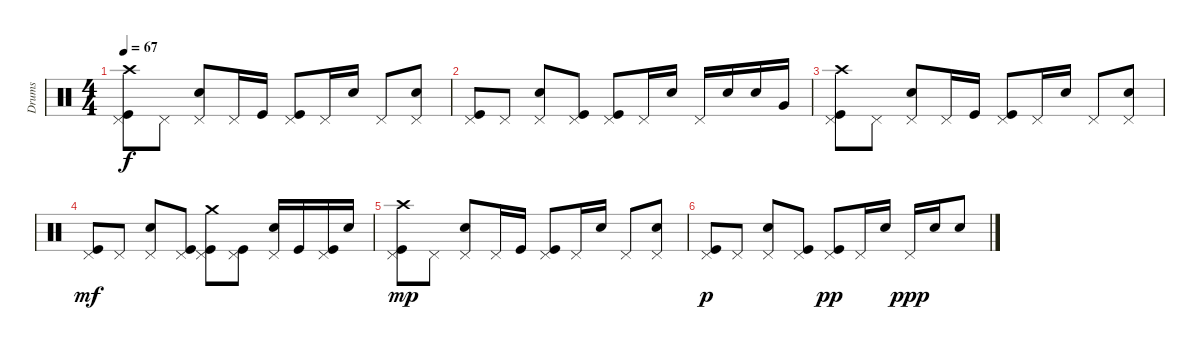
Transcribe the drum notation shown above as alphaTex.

\track ("Drums" "Drums") {instrument percussion}
\staff {score}
\articulation defaults
\ts (4 4)
\tempo 67
\clef neutral
\ks c
("Kick (hit)" "Pedal Hi-Hat (hit)" "Crash high (hit)").8{dy f} "Pedal Hi-Hat (hit)".8 ("Snare (hit) 2" "Pedal Hi-Hat (hit)").8 "Pedal Hi-Hat (hit)".16 "Kick (hit)".16 ("Kick (hit)" "Pedal Hi-Hat (hit)").8 "Pedal Hi-Hat (hit)".16 "Snare (hit) 2".16 "Pedal Hi-Hat (hit)".8 ("Snare (hit) 2" "Pedal Hi-Hat (hit)").8 |
("Kick (hit)" "Pedal Hi-Hat (hit)").8 "Pedal Hi-Hat (hit)".8 ("Snare (hit) 2" "Pedal Hi-Hat (hit)").8 ("Kick (hit)" "Pedal Hi-Hat (hit)").8 ("Kick (hit)" "Pedal Hi-Hat (hit)").8 "Pedal Hi-Hat (hit)".16 "Snare (hit) 2".16 "Pedal Hi-Hat (hit)".16 "Snare (hit) 2".16 "Snare (hit) 2".16 "Very Low Tom (hit)".16 |
("Kick (hit)" "Pedal Hi-Hat (hit)" "Crash high (hit)").8 "Pedal Hi-Hat (hit)".8 ("Snare (hit) 2" "Pedal Hi-Hat (hit)").8 "Pedal Hi-Hat (hit)".16 "Kick (hit)".16 ("Kick (hit)" "Pedal Hi-Hat (hit)").8 "Pedal Hi-Hat (hit)".16 "Snare (hit) 2".16 "Pedal Hi-Hat (hit)".8 ("Snare (hit) 2" "Pedal Hi-Hat (hit)").8 |
("Kick (hit)" "Pedal Hi-Hat (hit)").8{dy mf} "Pedal Hi-Hat (hit)".8 ("Snare (hit) 2" "Pedal Hi-Hat (hit)").8 ("Kick (hit)" "Pedal Hi-Hat (hit)").8 ("Kick (hit)" "Pedal Hi-Hat (hit)" "Crash medium (hit)").8 ("Kick (hit)" "Pedal Hi-Hat (hit)").8 ("Snare (hit) 2" "Pedal Hi-Hat (hit)").16 "Kick (hit)".16 ("Kick (hit)" "Pedal Hi-Hat (hit)").16 "Snare (hit) 2".16 |
("Kick (hit)" "Pedal Hi-Hat (hit)" "Crash high (hit)").8{dy mp} "Pedal Hi-Hat (hit)".8 ("Snare (hit) 2" "Pedal Hi-Hat (hit)").8 "Pedal Hi-Hat (hit)".16 "Kick (hit)".16 ("Kick (hit)" "Pedal Hi-Hat (hit)").8 "Pedal Hi-Hat (hit)".16 "Snare (hit) 2".16 "Pedal Hi-Hat (hit)".8 ("Snare (hit) 2" "Pedal Hi-Hat (hit)").8 |
("Kick (hit)" "Pedal Hi-Hat (hit)").8{dy p} "Pedal Hi-Hat (hit)".8 ("Snare (hit) 2" "Pedal Hi-Hat (hit)").8 ("Kick (hit)" "Pedal Hi-Hat (hit)").8 ("Kick (hit)" "Pedal Hi-Hat (hit)").8{dy pp} "Pedal Hi-Hat (hit)".16 "Snare (hit) 2".16 "Pedal Hi-Hat (hit)".16{dy ppp} "Snare (hit) 2".16 "Snare (hit) 2".8
